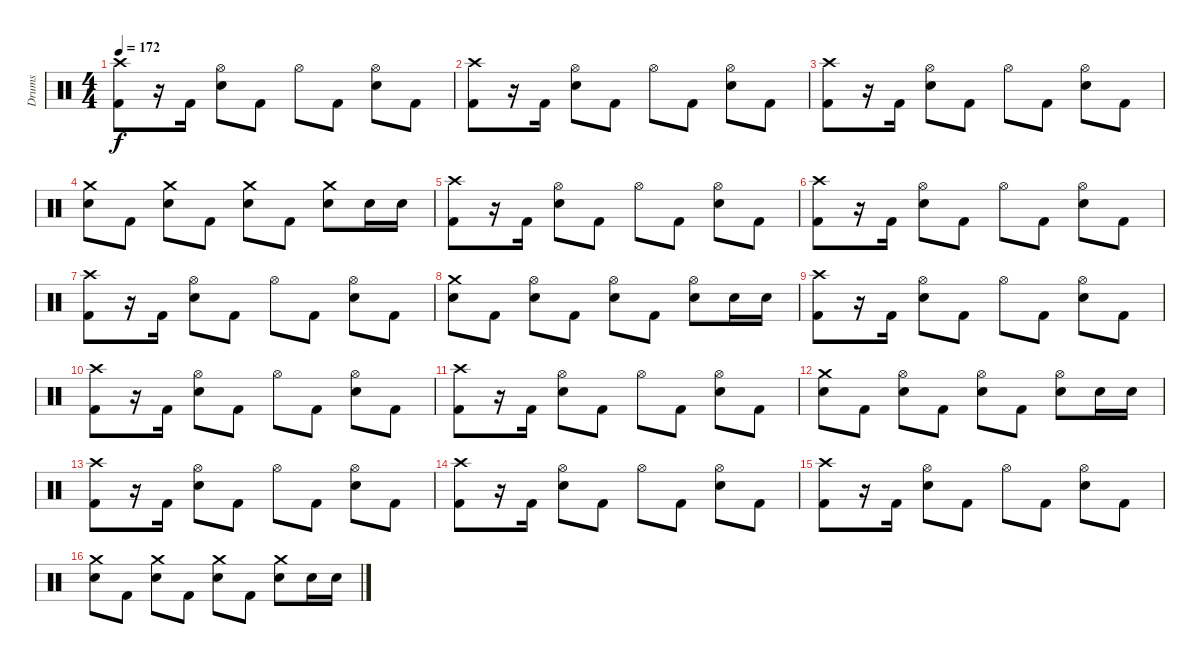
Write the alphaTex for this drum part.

\track ("Drums" "Drums") {instrument percussion}
\staff {score}
\articulation defaults
\ts (4 4)
\tempo 172
\clef neutral
\ks c
("Crash high (hit)" "Kick (hit) 2").8{dy f} r.16 "Kick (hit) 2".16 ("Hi-Hat (open)" "Snare (hit) 2").8 "Kick (hit) 2".8 "Hi-Hat (open)".8 "Kick (hit) 2".8 ("Hi-Hat (open)" "Snare (hit) 2").8 "Kick (hit) 2".8 |
("Crash high (hit)" "Kick (hit) 2").8 r.16 "Kick (hit) 2".16 ("Hi-Hat (open)" "Snare (hit) 2").8 "Kick (hit) 2".8 "Hi-Hat (open)".8 "Kick (hit) 2".8 ("Hi-Hat (open)" "Snare (hit) 2").8 "Kick (hit) 2".8 |
("Crash high (hit)" "Kick (hit) 2").8 r.16 "Kick (hit) 2".16 ("Hi-Hat (open)" "Snare (hit) 2").8 "Kick (hit) 2".8 "Hi-Hat (open)".8 "Kick (hit) 2".8 ("Hi-Hat (open)" "Snare (hit) 2").8 "Kick (hit) 2".8 |
("Crash medium (hit)" "Snare (hit) 2").8 "Kick (hit) 2".8 ("Crash medium (hit)" "Snare (hit) 2").8 "Kick (hit) 2".8 ("Crash medium (hit)" "Snare (hit) 2").8 "Kick (hit) 2".8 ("Crash medium (hit)" "Snare (hit) 2").8 "Snare (hit) 2".16 "Snare (hit) 2".16 |
("Crash high (hit)" "Kick (hit) 2").8 r.16 "Kick (hit) 2".16 ("Hi-Hat (open)" "Snare (hit) 2").8 "Kick (hit) 2".8 "Hi-Hat (open)".8 "Kick (hit) 2".8 ("Hi-Hat (open)" "Snare (hit) 2").8 "Kick (hit) 2".8 |
("Crash high (hit)" "Kick (hit) 2").8 r.16 "Kick (hit) 2".16 ("Hi-Hat (open)" "Snare (hit) 2").8 "Kick (hit) 2".8 "Hi-Hat (open)".8 "Kick (hit) 2".8 ("Hi-Hat (open)" "Snare (hit) 2").8 "Kick (hit) 2".8 |
("Crash high (hit)" "Kick (hit) 2").8 r.16 "Kick (hit) 2".16 ("Hi-Hat (open)" "Snare (hit) 2").8 "Kick (hit) 2".8 "Hi-Hat (open)".8 "Kick (hit) 2".8 ("Hi-Hat (open)" "Snare (hit) 2").8 "Kick (hit) 2".8 |
("Crash medium (hit)" "Snare (hit) 2").8 "Kick (hit) 2".8 ("Hi-Hat (open)" "Snare (hit) 2").8 "Kick (hit) 2".8 ("Hi-Hat (open)" "Snare (hit) 2").8 "Kick (hit) 2".8 ("Hi-Hat (open)" "Snare (hit) 2").8 "Snare (hit) 2".16 "Snare (hit) 2".16 |
("Crash high (hit)" "Kick (hit) 2").8 r.16 "Kick (hit) 2".16 ("Hi-Hat (open)" "Snare (hit) 2").8 "Kick (hit) 2".8 "Hi-Hat (open)".8 "Kick (hit) 2".8 ("Hi-Hat (open)" "Snare (hit) 2").8 "Kick (hit) 2".8 |
("Crash high (hit)" "Kick (hit) 2").8 r.16 "Kick (hit) 2".16 ("Hi-Hat (open)" "Snare (hit) 2").8 "Kick (hit) 2".8 "Hi-Hat (open)".8 "Kick (hit) 2".8 ("Hi-Hat (open)" "Snare (hit) 2").8 "Kick (hit) 2".8 |
("Crash high (hit)" "Kick (hit) 2").8 r.16 "Kick (hit) 2".16 ("Hi-Hat (open)" "Snare (hit) 2").8 "Kick (hit) 2".8 "Hi-Hat (open)".8 "Kick (hit) 2".8 ("Hi-Hat (open)" "Snare (hit) 2").8 "Kick (hit) 2".8 |
("Crash medium (hit)" "Snare (hit) 2").8 "Kick (hit) 2".8 ("Hi-Hat (open)" "Snare (hit) 2").8 "Kick (hit) 2".8 ("Hi-Hat (open)" "Snare (hit) 2").8 "Kick (hit) 2".8 ("Hi-Hat (open)" "Snare (hit) 2").8 "Snare (hit) 2".16 "Snare (hit) 2".16 |
("Crash high (hit)" "Kick (hit) 2").8 r.16 "Kick (hit) 2".16 ("Hi-Hat (open)" "Snare (hit) 2").8 "Kick (hit) 2".8 "Hi-Hat (open)".8 "Kick (hit) 2".8 ("Hi-Hat (open)" "Snare (hit) 2").8 "Kick (hit) 2".8 |
("Crash high (hit)" "Kick (hit) 2").8 r.16 "Kick (hit) 2".16 ("Hi-Hat (open)" "Snare (hit) 2").8 "Kick (hit) 2".8 "Hi-Hat (open)".8 "Kick (hit) 2".8 ("Hi-Hat (open)" "Snare (hit) 2").8 "Kick (hit) 2".8 |
("Crash high (hit)" "Kick (hit) 2").8 r.16 "Kick (hit) 2".16 ("Hi-Hat (open)" "Snare (hit) 2").8 "Kick (hit) 2".8 "Hi-Hat (open)".8 "Kick (hit) 2".8 ("Hi-Hat (open)" "Snare (hit) 2").8 "Kick (hit) 2".8 |
("Crash medium (hit)" "Snare (hit) 2").8 "Kick (hit) 2".8 ("Crash medium (hit)" "Snare (hit) 2").8 "Kick (hit) 2".8 ("Crash medium (hit)" "Snare (hit) 2").8 "Kick (hit) 2".8 ("Crash medium (hit)" "Snare (hit) 2").8 "Snare (hit) 2".16 "Snare (hit) 2".16
